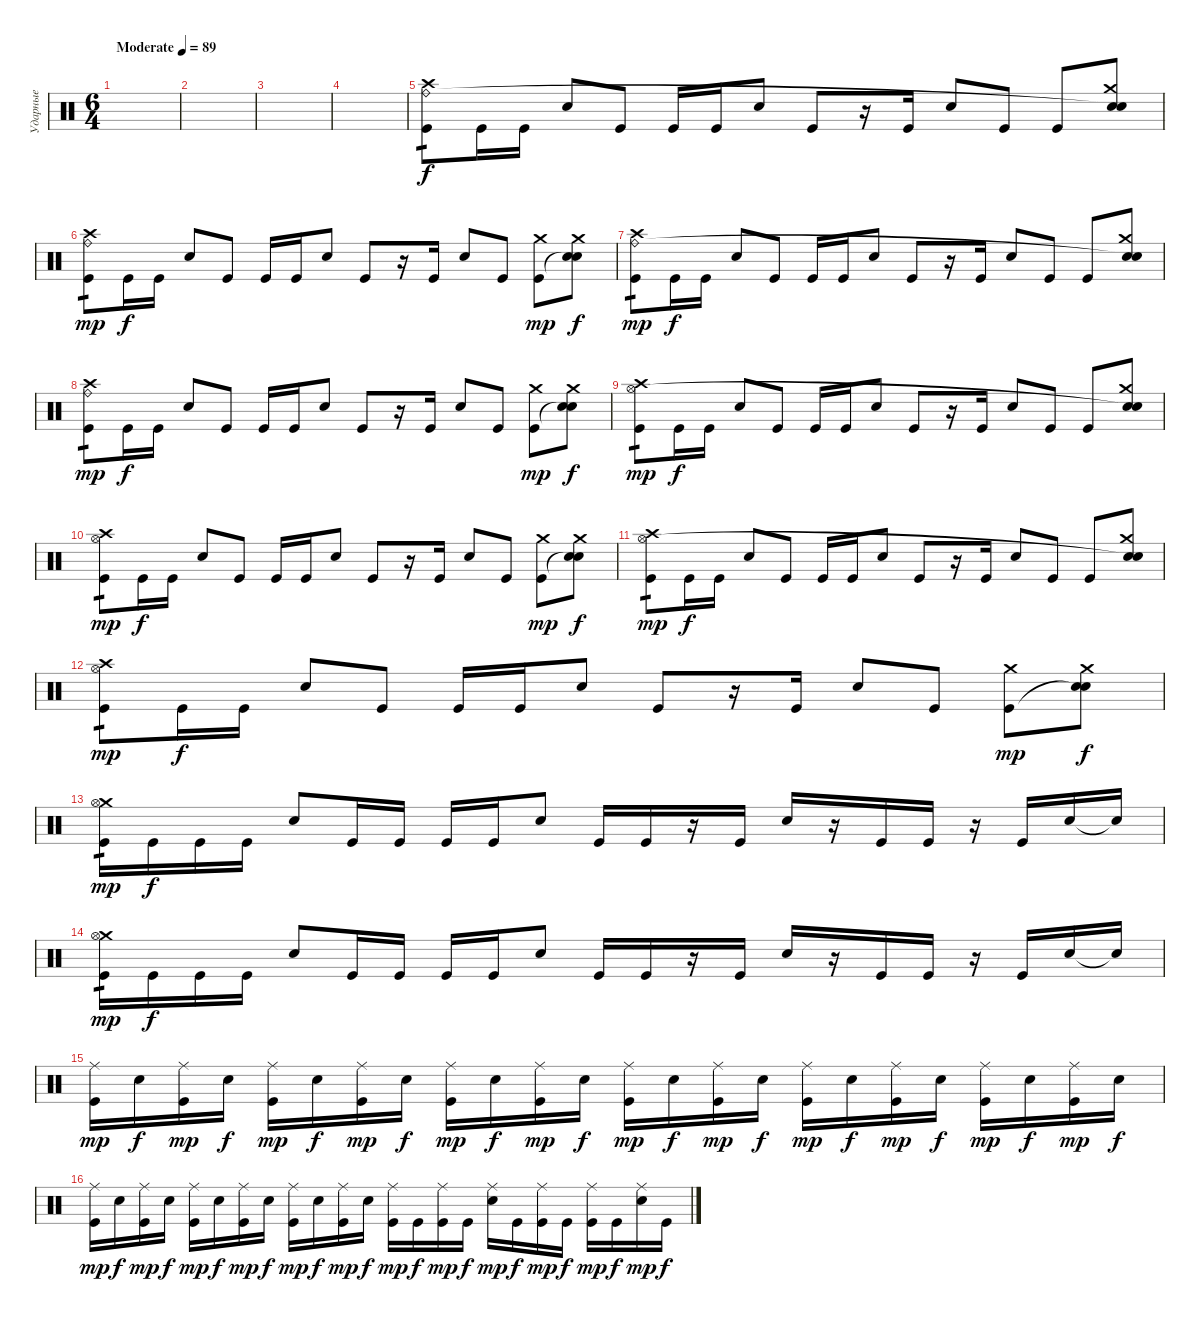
\track ("Ударные" "Ударные") {instrument percussion}
\staff {score}
\articulation defaults
\ts (6 4)
\tempo (89 "Moderate")
\clef neutral
\ks c
|
|
|
|
("Crash high (hit)" "Ride (bell)" "Kick (hit)").8{tp 1} "Kick (hit)".16{dy f} "Kick (hit)".16 "Electric Snare (hit)".8 "Kick (hit)".8 "Kick (hit)".16 "Kick (hit)".16 "Electric Snare (hit)".8 "Kick (hit)".8 r.16 "Kick (hit)".16 "Electric Snare (hit)".8 "Kick (hit)".8 "Kick (hit)".8 ("Crash medium (hit)" "Snare (hit)"{t} "Electric Snare (hit)").8 |
("Crash high (hit)" "Ride (bell)" "Kick (hit)").8{tp 1 dy mp} "Kick (hit)".16{dy f} "Kick (hit)".16 "Electric Snare (hit)".8 "Kick (hit)".8 "Kick (hit)".16 "Kick (hit)".16 "Electric Snare (hit)".8 "Kick (hit)".8 r.16 "Kick (hit)".16 "Electric Snare (hit)".8 "Kick (hit)".8 ("Crash medium (hit)" "Kick (hit)").8{dy mp} ("Crash medium (hit)" "Snare (hit)"{t} "Electric Snare (hit)").8{dy f} |
("Crash high (hit)" "Ride (bell)" "Kick (hit)").8{tp 1 dy mp} "Kick (hit)".16{dy f} "Kick (hit)".16 "Electric Snare (hit)".8 "Kick (hit)".8 "Kick (hit)".16 "Kick (hit)".16 "Electric Snare (hit)".8 "Kick (hit)".8 r.16 "Kick (hit)".16 "Electric Snare (hit)".8 "Kick (hit)".8 "Kick (hit)".8 ("Crash medium (hit)" "Snare (hit)"{t} "Electric Snare (hit)").8 |
("Crash high (hit)" "Ride (bell)" "Kick (hit)").8{tp 1 dy mp} "Kick (hit)".16{dy f} "Kick (hit)".16 "Electric Snare (hit)".8 "Kick (hit)".8 "Kick (hit)".16 "Kick (hit)".16 "Electric Snare (hit)".8 "Kick (hit)".8 r.16 "Kick (hit)".16 "Electric Snare (hit)".8 "Kick (hit)".8 ("Crash medium (hit)" "Kick (hit)").8{dy mp} ("Crash medium (hit)" "Snare (hit)"{t} "Electric Snare (hit)").8{dy f} |
("Crash high (hit)" "Hi-Hat (open)" "Kick (hit)").8{tp 1 dy mp} "Kick (hit)".16{dy f} "Kick (hit)".16 "Electric Snare (hit)".8 "Kick (hit)".8 "Kick (hit)".16 "Kick (hit)".16 "Electric Snare (hit)".8 "Kick (hit)".8 r.16 "Kick (hit)".16 "Electric Snare (hit)".8 "Kick (hit)".8 "Kick (hit)".8 ("Crash medium (hit)" "Snare (hit)"{t} "Electric Snare (hit)").8 |
("Crash high (hit)" "Hi-Hat (open)" "Kick (hit)").8{tp 1 dy mp} "Kick (hit)".16{dy f} "Kick (hit)".16 "Electric Snare (hit)".8 "Kick (hit)".8 "Kick (hit)".16 "Kick (hit)".16 "Electric Snare (hit)".8 "Kick (hit)".8 r.16 "Kick (hit)".16 "Electric Snare (hit)".8 "Kick (hit)".8 ("Crash medium (hit)" "Kick (hit)").8{dy mp} ("Crash medium (hit)" "Snare (hit)"{t} "Electric Snare (hit)").8{dy f} |
("Crash high (hit)" "Hi-Hat (open)" "Kick (hit)").8{tp 1 dy mp} "Kick (hit)".16{dy f} "Kick (hit)".16 "Electric Snare (hit)".8 "Kick (hit)".8 "Kick (hit)".16 "Kick (hit)".16 "Electric Snare (hit)".8 "Kick (hit)".8 r.16 "Kick (hit)".16 "Electric Snare (hit)".8 "Kick (hit)".8 "Kick (hit)".8 ("Crash medium (hit)" "Snare (hit)"{t} "Electric Snare (hit)").8 |
("Crash high (hit)" "Hi-Hat (open)" "Kick (hit)").8{tp 1 dy mp} "Kick (hit)".16{dy f} "Kick (hit)".16 "Electric Snare (hit)".8 "Kick (hit)".8 "Kick (hit)".16 "Kick (hit)".16 "Electric Snare (hit)".8 "Kick (hit)".8 r.16 "Kick (hit)".16 "Electric Snare (hit)".8 "Kick (hit)".8 ("Crash medium (hit)" "Kick (hit)").8{dy mp} ("Crash medium (hit)" "Snare (hit)"{t} "Electric Snare (hit)").8{dy f} |
("Crash medium (hit)" "Hi-Hat (open)" "Kick (hit)").16{tp 1 dy mp} "Kick (hit)".16{dy f} "Kick (hit)".16 "Kick (hit)".16 "Electric Snare (hit)".8 "Kick (hit)".16 "Kick (hit)".16 "Kick (hit)".16 "Kick (hit)".16 "Electric Snare (hit)".8 "Kick (hit)".16 "Kick (hit)".16 r.16 "Kick (hit)".16 "Electric Snare (hit)".16 r.16 "Kick (hit)".16 "Kick (hit)".16 r.16 "Kick (hit)".16 "Electric Snare (hit)".16 "Snare (hit)"{t}.16 |
("Crash medium (hit)" "Hi-Hat (open)" "Kick (hit)").16{tp 1 dy mp} "Kick (hit)".16{dy f} "Kick (hit)".16 "Kick (hit)".16 "Electric Snare (hit)".8 "Kick (hit)".16 "Kick (hit)".16 "Kick (hit)".16 "Kick (hit)".16 "Electric Snare (hit)".8 "Kick (hit)".16 "Kick (hit)".16 r.16 "Kick (hit)".16 "Electric Snare (hit)".16 r.16 "Kick (hit)".16 "Kick (hit)".16 r.16 "Kick (hit)".16 "Electric Snare (hit)".16 "Snare (hit)"{t}.16 |
("Ride (middle)" "Kick (hit)").16{dy mp} "Electric Snare (hit)".16{dy f} ("Ride (middle)" "Kick (hit)").16{dy mp} "Electric Snare (hit)".16{dy f} ("Ride (middle)" "Kick (hit)").16{dy mp} "Electric Snare (hit)".16{dy f} ("Ride (middle)" "Kick (hit)").16{dy mp} "Electric Snare (hit)".16{dy f} ("Ride (middle)" "Kick (hit)").16{dy mp} "Electric Snare (hit)".16{dy f} ("Ride (middle)" "Kick (hit)").16{dy mp} "Electric Snare (hit)".16{dy f} ("Ride (middle)" "Kick (hit)").16{dy mp} "Electric Snare (hit)".16{dy f} ("Ride (middle)" "Kick (hit)").16{dy mp} "Electric Snare (hit)".16{dy f} ("Ride (middle)" "Kick (hit)").16{dy mp} "Electric Snare (hit)".16{dy f} ("Ride (middle)" "Kick (hit)").16{dy mp} "Electric Snare (hit)".16{dy f} ("Ride (middle)" "Kick (hit)").16{dy mp} "Electric Snare (hit)".16{dy f} ("Ride (middle)" "Kick (hit)").16{dy mp} "Electric Snare (hit)".16{dy f} |
("Ride (middle)" "Kick (hit)").16{dy mp} "Electric Snare (hit)".16{dy f} ("Ride (middle)" "Kick (hit)").16{dy mp} "Electric Snare (hit)".16{dy f} ("Ride (middle)" "Kick (hit)").16{dy mp} "Electric Snare (hit)".16{dy f} ("Ride (middle)" "Kick (hit)").16{dy mp} "Electric Snare (hit)".16{dy f} ("Ride (middle)" "Kick (hit)").16{dy mp} "Electric Snare (hit)".16{dy f} ("Ride (middle)" "Kick (hit)").16{dy mp} "Electric Snare (hit)".16{dy f} ("Ride (middle)" "Kick (hit)").16{dy mp} "Kick (hit)".16{dy f} ("Ride (middle)" "Kick (hit)").16{dy mp} "Kick (hit)".16{dy f} ("Ride (middle)" "Electric Snare (hit)").16{dy mp} "Kick (hit)".16{dy f} ("Ride (middle)" "Kick (hit)").16{dy mp} "Kick (hit)".16{dy f} ("Ride (middle)" "Kick (hit)").16{dy mp} "Kick (hit)".16{dy f} ("Ride (middle)" "Electric Snare (hit)").16{dy mp} "Kick (hit)".16{dy f}
